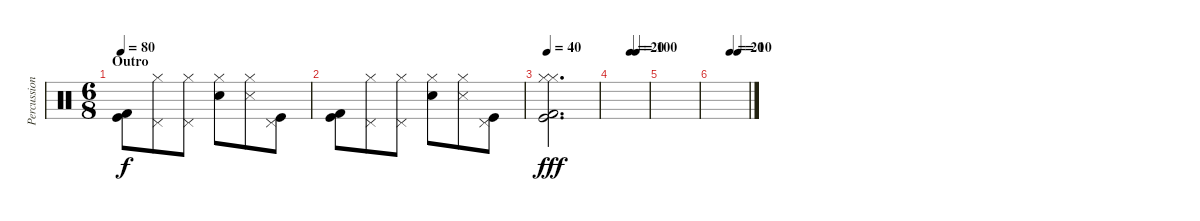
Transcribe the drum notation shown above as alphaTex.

\track ("Percussion" "Percussion") {instrument percussion}
\staff {score}
\articulation defaults
\ts (6 8)
\section ("" "Outro")
\tempo 80
\clef neutral
\ks c
("Kick (hit)" "Kick (hit) 2").8{dy f} ("Hi-Hat (closed)" "Pedal Hi-Hat (hit)").8 ("Hi-Hat (closed)" "Pedal Hi-Hat (hit)").8 ("Hi-Hat (closed)" "Snare (hit) 2").8 ("Hi-Hat (closed)" "Snare (side stick) 3").8 ("Kick (hit)" "Pedal Hi-Hat (hit)").8 |
("Kick (hit)" "Kick (hit) 2").8 ("Hi-Hat (closed)" "Pedal Hi-Hat (hit)").8 ("Hi-Hat (closed)" "Pedal Hi-Hat (hit)").8 ("Hi-Hat (closed)" "Snare (hit) 2").8 ("Hi-Hat (closed)" "Snare (side stick) 3").8 ("Kick (hit)" "Pedal Hi-Hat (hit)").8 |
\tempo 40
("Kick (hit)" "Kick (hit) 2" "Hi-Hat (closed)" "Hi-Hat (closed)").2{d dy fff} |
\tempo (20 0.5)
\tempo (100 0.6666666666666666)
|
|
\tempo (20 0.5)
\tempo (10 0.7083333333333334)
